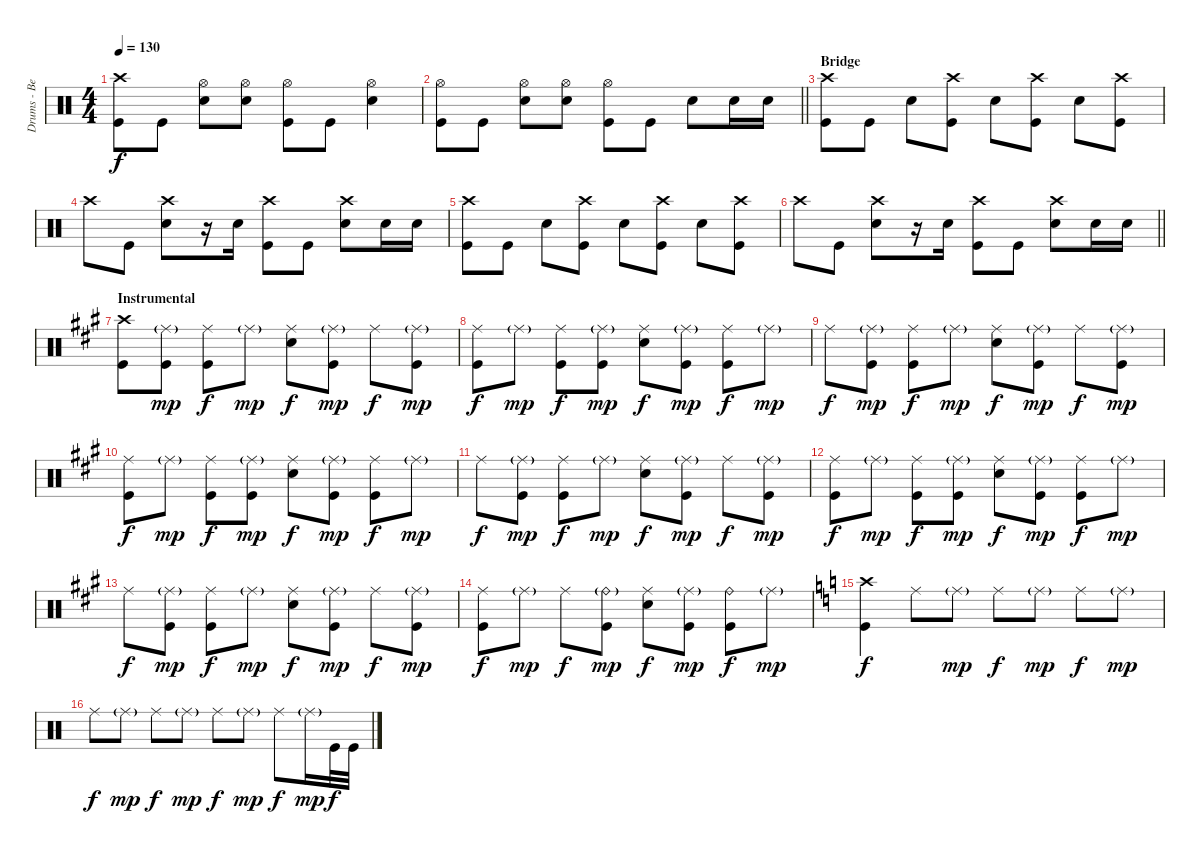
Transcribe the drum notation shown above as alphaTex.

\track ("Drums - Ben Johnston" "Drums - Be") {instrument percussion}
\staff {score}
\articulation defaults
\ts (4 4)
\tempo 130
\clef neutral
\ks c
("Crash high (hit)" "Kick (hit)").8{dy f} "Kick (hit)".8 ("Hi-Hat (open)" "Snare (hit) 2").8 ("Hi-Hat (open)" "Snare (hit) 2").8 ("Hi-Hat (open)" "Kick (hit)").8 "Kick (hit)".8 ("Hi-Hat (open)" "Snare (hit) 2").4 |
\barLineRight lightlight
("Hi-Hat (open)" "Kick (hit)").8 "Kick (hit)".8 ("Hi-Hat (open)" "Snare (hit) 2").8 ("Hi-Hat (open)" "Snare (hit) 2").8 ("Hi-Hat (open)" "Kick (hit)").8 "Kick (hit)".8 "Snare (hit) 2".8 "Snare (hit) 2".16 "Snare (hit) 2".16 |
\section ("" "Bridge")
("Crash high (hit)" "Kick (hit)").8 "Kick (hit)".8 "Snare (hit) 2".8 ("Crash high (hit)" "Kick (hit)").8 "Snare (hit) 2".8 ("Crash high (hit)" "Kick (hit)").8 "Snare (hit) 2".8 ("Crash high (hit)" "Kick (hit)").8 |
"Crash high (hit)".8 "Kick (hit)".8 ("Crash high (hit)" "Snare (hit) 2").8 r.16 "Snare (hit) 2".16 ("Crash high (hit)" "Kick (hit)").8 "Kick (hit)".8 ("Crash high (hit)" "Snare (hit) 2").8 "Snare (hit) 2".16 "Snare (hit) 2".16 |
("Crash high (hit)" "Kick (hit)").8 "Kick (hit)".8 "Snare (hit) 2".8 ("Crash high (hit)" "Kick (hit)").8 "Snare (hit) 2".8 ("Crash high (hit)" "Kick (hit)").8 "Snare (hit) 2".8 ("Crash high (hit)" "Kick (hit)").8 |
\barLineRight lightlight "Crash high (hit)".8 "Kick (hit)".8
("Crash high (hit)" "Snare (hit) 2").8 r.16 "Snare (hit) 2".16 ("Crash high (hit)" "Kick (hit)").8 "Kick (hit)".8 ("Crash high (hit)" "Snare (hit) 2").8 "Snare (hit) 2".16 "Snare (hit) 2".16 |
\section ("" "Instrumental")
\ks a
("Crash high (hit)" "Kick (hit)").8 ("Ride (middle)"{g} "Kick (hit)").8{dy mp} ("Ride (middle)" "Kick (hit)").8{dy f} "Ride (middle)"{g}.8{dy mp} ("Ride (middle)" "Snare (hit) 2").8{dy f} ("Ride (middle)"{g} "Kick (hit)").8{dy mp} "Ride (middle)".8{dy f} ("Ride (middle)"{g} "Kick (hit)").8{dy mp} |
("Ride (middle)" "Kick (hit)").8{dy f} "Ride (middle)"{g}.8{dy mp} ("Ride (middle)" "Kick (hit)").8{dy f} ("Ride (middle)"{g} "Kick (hit)").8{dy mp} ("Ride (middle)" "Snare (hit) 2").8{dy f} ("Ride (middle)"{g} "Kick (hit)").8{dy mp} ("Ride (middle)" "Kick (hit)").8{dy f} "Ride (middle)"{g}.8{dy mp} |
"Ride (middle)".8{dy f} ("Ride (middle)"{g} "Kick (hit)").8{dy mp} ("Ride (middle)" "Kick (hit)").8{dy f} "Ride (middle)"{g}.8{dy mp} ("Ride (middle)" "Snare (hit) 2").8{dy f} ("Ride (middle)"{g} "Kick (hit)").8{dy mp} "Ride (middle)".8{dy f} ("Ride (middle)"{g} "Kick (hit)").8{dy mp} |
("Ride (middle)" "Kick (hit)").8{dy f} "Ride (middle)"{g}.8{dy mp} ("Ride (middle)" "Kick (hit)").8{dy f} ("Ride (middle)"{g} "Kick (hit)").8{dy mp} ("Ride (middle)" "Snare (hit) 2").8{dy f} ("Ride (middle)"{g} "Kick (hit)").8{dy mp} ("Ride (middle)" "Kick (hit)").8{dy f} "Ride (middle)"{g}.8{dy mp} |
"Ride (middle)".8{dy f} ("Ride (middle)"{g} "Kick (hit)").8{dy mp} ("Ride (middle)" "Kick (hit)").8{dy f} "Ride (middle)"{g}.8{dy mp} ("Ride (middle)" "Snare (hit) 2").8{dy f} ("Ride (middle)"{g} "Kick (hit)").8{dy mp} "Ride (middle)".8{dy f} ("Ride (middle)"{g} "Kick (hit)").8{dy mp} |
("Ride (middle)" "Kick (hit)").8{dy f} "Ride (middle)"{g}.8{dy mp} ("Ride (middle)" "Kick (hit)").8{dy f} ("Ride (middle)"{g} "Kick (hit)").8{dy mp} ("Ride (middle)" "Snare (hit) 2").8{dy f} ("Ride (middle)"{g} "Kick (hit)").8{dy mp} ("Ride (middle)" "Kick (hit)").8{dy f} "Ride (middle)"{g}.8{dy mp} |
"Ride (middle)".8{dy f} ("Ride (middle)"{g} "Kick (hit)").8{dy mp} ("Ride (middle)" "Kick (hit)").8{dy f} "Ride (middle)"{g}.8{dy mp} ("Ride (middle)" "Snare (hit) 2").8{dy f} ("Ride (middle)"{g} "Kick (hit)").8{dy mp} "Ride (middle)".8{dy f} ("Ride (middle)"{g} "Kick (hit)").8{dy mp} |
("Ride (middle)" "Kick (hit)").8{dy f} "Ride (middle)"{g}.8{dy mp} "Ride (middle)".8{dy f} ("Ride (bell)"{g} "Kick (hit)").8{dy mp} ("Ride (middle)" "Snare (hit) 2").8{dy f} ("Ride (middle)"{g} "Kick (hit)").8{dy mp} ("Ride (bell)" "Kick (hit)").8{dy f} "Ride (middle)"{g}.8{dy mp} |
\ks aminor
("Crash high (hit)" "Kick (hit)").4{dy f} "Ride (middle)".8 "Ride (middle)"{g}.8{dy mp} "Ride (middle)".8{dy f} "Ride (middle)"{g}.8{dy mp} "Ride (middle)".8{dy f} "Ride (middle)"{g}.8{dy mp} |
"Ride (middle)".8{dy f} "Ride (middle)"{g}.8{dy mp} "Ride (middle)".8{dy f} "Ride (middle)"{g}.8{dy mp} "Ride (middle)".8{dy f} "Ride (middle)"{g}.8{dy mp} "Ride (middle)".8{dy f} "Ride (middle)"{g}.16{dy mp} "Kick (hit)".32{dy f volume 16} "Kick (hit)".32
